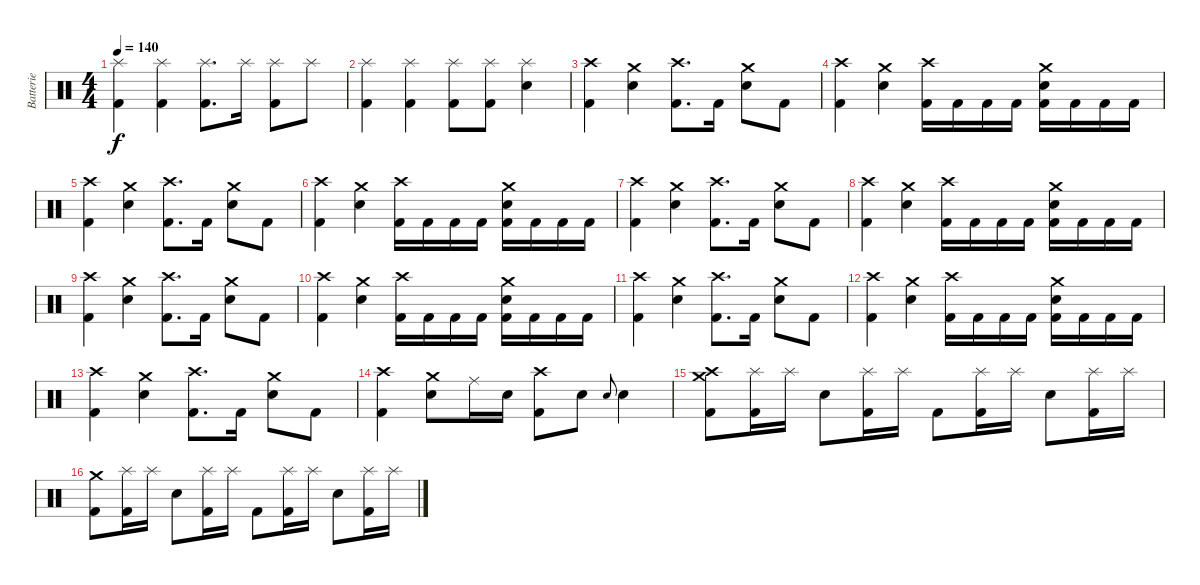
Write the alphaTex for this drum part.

\track ("Batterie" "Batterie") {instrument percussion}
\staff {score}
\articulation defaults
\ts (4 4)
\tempo 140
\clef neutral
\ks c
("Splash (hit)" "Kick (hit) 2").4{dy f} ("Splash (hit)" "Kick (hit) 2").4 ("Splash (hit)" "Kick (hit) 2").8{d} "Splash (hit)".16 ("Splash (hit)" "Kick (hit) 2").8 "Splash (hit)".8 |
("Splash (hit)" "Kick (hit) 2").4 ("Splash (hit)" "Kick (hit) 2").4 ("Splash (hit)" "Kick (hit) 2").8 ("Splash (hit)" "Kick (hit) 2").8 ("Splash (hit)" "Electric Snare (hit)").4 |
("Crash high (hit)" "Kick (hit) 2").4 ("Crash medium (hit)" "Electric Snare (hit)").4 ("Crash high (hit)" "Kick (hit) 2").8{d} "Kick (hit) 2".16 ("Crash medium (hit)" "Electric Snare (hit)").8 "Kick (hit) 2".8 |
("Crash high (hit)" "Kick (hit) 2").4 ("Crash medium (hit)" "Electric Snare (hit)").4 ("Crash high (hit)" "Kick (hit) 2").16 "Kick (hit) 2".16 "Kick (hit) 2".16 "Kick (hit) 2".16 ("Crash medium (hit)" "Electric Snare (hit)" "Kick (hit) 2").16 "Kick (hit) 2".16 "Kick (hit) 2".16 "Kick (hit) 2".16 |
("Crash high (hit)" "Kick (hit) 2").4 ("Crash medium (hit)" "Electric Snare (hit)").4 ("Crash high (hit)" "Kick (hit) 2").8{d} "Kick (hit) 2".16 ("Crash medium (hit)" "Electric Snare (hit)").8 "Kick (hit) 2".8 |
("Crash high (hit)" "Kick (hit) 2").4 ("Crash medium (hit)" "Electric Snare (hit)").4 ("Crash high (hit)" "Kick (hit) 2").16 "Kick (hit) 2".16 "Kick (hit) 2".16 "Kick (hit) 2".16 ("Crash medium (hit)" "Electric Snare (hit)" "Kick (hit) 2").16 "Kick (hit) 2".16 "Kick (hit) 2".16 "Kick (hit) 2".16 |
("Crash high (hit)" "Kick (hit) 2").4 ("Crash medium (hit)" "Electric Snare (hit)").4 ("Crash high (hit)" "Kick (hit) 2").8{d} "Kick (hit) 2".16 ("Crash medium (hit)" "Electric Snare (hit)").8 "Kick (hit) 2".8 |
("Crash high (hit)" "Kick (hit) 2").4 ("Crash medium (hit)" "Electric Snare (hit)").4 ("Crash high (hit)" "Kick (hit) 2").16 "Kick (hit) 2".16 "Kick (hit) 2".16 "Kick (hit) 2".16 ("Crash medium (hit)" "Electric Snare (hit)" "Kick (hit) 2").16 "Kick (hit) 2".16 "Kick (hit) 2".16 "Kick (hit) 2".16 |
("Crash high (hit)" "Kick (hit) 2").4 ("Crash medium (hit)" "Electric Snare (hit)").4 ("Crash high (hit)" "Kick (hit) 2").8{d} "Kick (hit) 2".16 ("Crash medium (hit)" "Electric Snare (hit)").8 "Kick (hit) 2".8 |
("Crash high (hit)" "Kick (hit) 2").4 ("Crash medium (hit)" "Electric Snare (hit)").4 ("Crash high (hit)" "Kick (hit) 2").16 "Kick (hit) 2".16 "Kick (hit) 2".16 "Kick (hit) 2".16 ("Crash medium (hit)" "Electric Snare (hit)" "Kick (hit) 2").16 "Kick (hit) 2".16 "Kick (hit) 2".16 "Kick (hit) 2".16 |
("Crash high (hit)" "Kick (hit) 2").4 ("Crash medium (hit)" "Electric Snare (hit)").4 ("Crash high (hit)" "Kick (hit) 2").8{d} "Kick (hit) 2".16 ("Crash medium (hit)" "Electric Snare (hit)").8 "Kick (hit) 2".8 |
("Crash high (hit)" "Kick (hit) 2").4 ("Crash medium (hit)" "Electric Snare (hit)").4 ("Crash high (hit)" "Kick (hit) 2").16 "Kick (hit) 2".16 "Kick (hit) 2".16 "Kick (hit) 2".16 ("Crash medium (hit)" "Electric Snare (hit)" "Kick (hit) 2").16 "Kick (hit) 2".16 "Kick (hit) 2".16 "Kick (hit) 2".16 |
("Crash high (hit)" "Kick (hit) 2").4 ("Crash medium (hit)" "Electric Snare (hit)").4 ("Crash high (hit)" "Kick (hit) 2").8{d} "Kick (hit) 2".16 ("Crash medium (hit)" "Electric Snare (hit)").8 "Kick (hit) 2".8 |
("Crash high (hit)" "Kick (hit) 2").4 ("Crash medium (hit)" "Electric Snare (hit)").8 "Ride (middle)".16 "Electric Snare (hit)".16 ("Crash high (hit)" "Kick (hit) 2").8 "Electric Snare (hit)".8 "Electric Snare (hit)".8{gr onbeat} "Electric Snare (hit)".4 |
("Crash high (hit)" "Crash medium (hit)" "Kick (hit) 2").8 ("Splash (hit)" "Kick (hit) 2").16 "Splash (hit)".16 "Electric Snare (hit)".8 ("Splash (hit)" "Kick (hit) 2").16 "Splash (hit)".16 "Kick (hit) 2".8 ("Splash (hit)" "Kick (hit) 2").16 "Splash (hit)".16 "Electric Snare (hit)".8 ("Splash (hit)" "Kick (hit) 2").16 "Splash (hit)".16 |
("Crash medium (hit)" "Kick (hit) 2").8 ("Splash (hit)" "Kick (hit) 2").16 "Splash (hit)".16 "Electric Snare (hit)".8 ("Splash (hit)" "Kick (hit) 2").16 "Splash (hit)".16 "Kick (hit) 2".8 ("Splash (hit)" "Kick (hit) 2").16 "Splash (hit)".16 "Electric Snare (hit)".8 ("Splash (hit)" "Kick (hit) 2").16 "Splash (hit)".16
